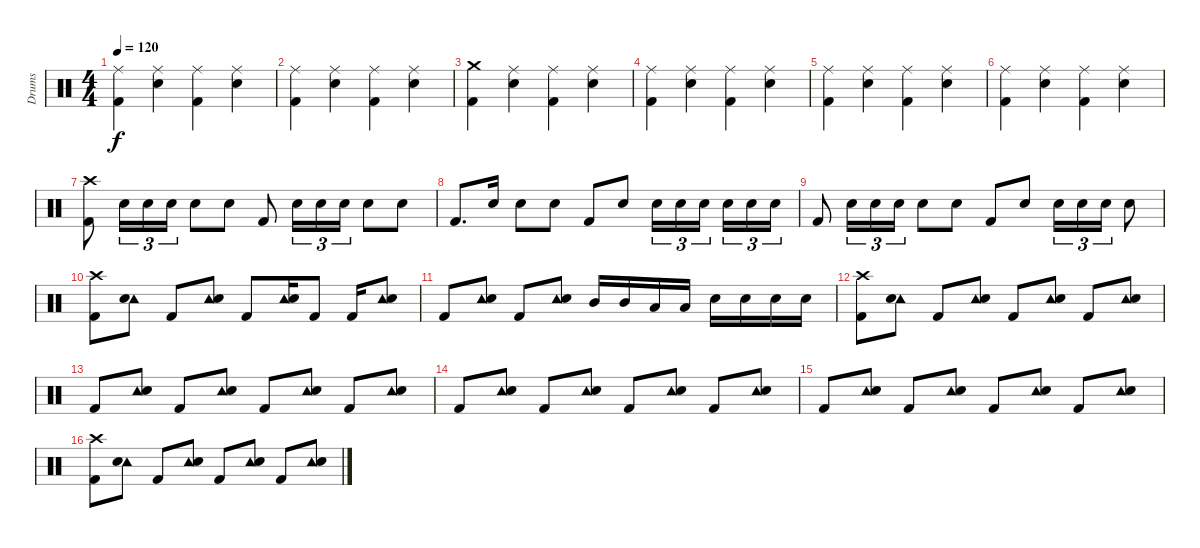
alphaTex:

\track ("Drums" "Drums") {instrument percussion}
\staff {score}
\articulation defaults
\ts (4 4)
\tempo 120
\clef neutral
\ks c
("Ride (middle)" "Kick (hit) 2").4{dy f} ("Ride (middle)" "Electric Snare (hit)").4 ("Ride (middle)" "Kick (hit) 2").4 ("Ride (middle)" "Electric Snare (hit)").4 |
("Ride (middle)" "Kick (hit) 2").4 ("Ride (middle)" "Electric Snare (hit)").4 ("Ride (middle)" "Kick (hit) 2").4 ("Ride (middle)" "Electric Snare (hit)").4 |
("Crash medium (hit)" "Kick (hit) 2").4 ("Ride (middle)" "Electric Snare (hit)").4 ("Ride (middle)" "Kick (hit) 2").4 ("Ride (middle)" "Electric Snare (hit)").4 |
("Ride (middle)" "Kick (hit) 2").4 ("Ride (middle)" "Electric Snare (hit)").4 ("Ride (middle)" "Kick (hit) 2").4 ("Ride (middle)" "Electric Snare (hit)").4 |
("Ride (middle)" "Kick (hit) 2").4 ("Ride (middle)" "Electric Snare (hit)").4 ("Ride (middle)" "Kick (hit) 2").4 ("Ride (middle)" "Electric Snare (hit)").4 |
("Ride (middle)" "Kick (hit) 2").4 ("Ride (middle)" "Electric Snare (hit)").4 ("Ride (middle)" "Kick (hit) 2").4 ("Ride (middle)" "Electric Snare (hit)").4 |
("Crash high (hit)" "Kick (hit) 2").8 "Electric Snare (hit)".16{tu (3 2)} "Electric Snare (hit)".16{tu (3 2)} "Electric Snare (hit)".16{tu (3 2)} "Electric Snare (hit)".8 "Electric Snare (hit)".8 "Kick (hit) 2".8 "Electric Snare (hit)".16{tu (3 2)} "Electric Snare (hit)".16{tu (3 2)} "Electric Snare (hit)".16{tu (3 2)} "Electric Snare (hit)".8 "Electric Snare (hit)".8 |
"Kick (hit) 2".8{d} "Electric Snare (hit)".16 "Electric Snare (hit)".8 "Electric Snare (hit)".8 "Kick (hit) 2".8 "Electric Snare (hit)".8 "Electric Snare (hit)".16{tu (3 2)} "Electric Snare (hit)".16{tu (3 2)} "Electric Snare (hit)".16{tu (3 2) beam splitsecondary} "Electric Snare (hit)".16{tu (3 2)} "Electric Snare (hit)".16{tu (3 2)} "Electric Snare (hit)".16{tu (3 2)} |
"Kick (hit) 2".8 "Electric Snare (hit)".16{tu (3 2)} "Electric Snare (hit)".16{tu (3 2)} "Electric Snare (hit)".16{tu (3 2)} "Electric Snare (hit)".8 "Electric Snare (hit)".8 "Kick (hit) 2".8 "Electric Snare (hit)".8 "Electric Snare (hit)".16{tu (3 2)} "Electric Snare (hit)".16{tu (3 2)} "Electric Snare (hit)".16{tu (3 2)} "Electric Snare (hit)".8 |
("Crash high (hit)" "Kick (hit) 2").8 ("Tambourine (hit)" "Electric Snare (hit)").8 "Kick (hit) 2".8 ("Tambourine (hit)" "Electric Snare (hit)").8 "Kick (hit) 2".8 ("Tambourine (hit)" "Electric Snare (hit)").16 "Kick (hit) 2".8 "Kick (hit) 2".16 ("Tambourine (hit)" "Electric Snare (hit)").8 |
"Kick (hit) 2".8 ("Tambourine (hit)" "Electric Snare (hit)").8 "Kick (hit) 2".8 ("Tambourine (hit)" "Electric Snare (hit)").8 "Mid Tom (hit)".16 "Mid Tom (hit)".16 "Low Tom (hit)".16 "Low Tom (hit)".16 "Electric Snare (hit)".16 "Electric Snare (hit)".16 "Electric Snare (hit)".16 "Electric Snare (hit)".16 |
("Crash high (hit)" "Kick (hit) 2").8 ("Tambourine (hit)" "Electric Snare (hit)").8 "Kick (hit) 2".8 ("Tambourine (hit)" "Electric Snare (hit)").8 "Kick (hit) 2".8 ("Tambourine (hit)" "Electric Snare (hit)").8 "Kick (hit) 2".8 ("Tambourine (hit)" "Electric Snare (hit)").8 |
"Kick (hit) 2".8 ("Tambourine (hit)" "Electric Snare (hit)").8 "Kick (hit) 2".8 ("Tambourine (hit)" "Electric Snare (hit)").8 "Kick (hit) 2".8 ("Tambourine (hit)" "Electric Snare (hit)").8 "Kick (hit) 2".8 ("Tambourine (hit)" "Electric Snare (hit)").8 |
"Kick (hit) 2".8 ("Tambourine (hit)" "Electric Snare (hit)").8 "Kick (hit) 2".8 ("Tambourine (hit)" "Electric Snare (hit)").8 "Kick (hit) 2".8 ("Tambourine (hit)" "Electric Snare (hit)").8 "Kick (hit) 2".8 ("Tambourine (hit)" "Electric Snare (hit)").8 |
"Kick (hit) 2".8 ("Tambourine (hit)" "Electric Snare (hit)").8 "Kick (hit) 2".8 ("Tambourine (hit)" "Electric Snare (hit)").8 "Kick (hit) 2".8 ("Tambourine (hit)" "Electric Snare (hit)").8 "Kick (hit) 2".8 ("Tambourine (hit)" "Electric Snare (hit)").8 |
("Crash high (hit)" "Kick (hit) 2").8 ("Tambourine (hit)" "Electric Snare (hit)").8 "Kick (hit) 2".8 ("Tambourine (hit)" "Electric Snare (hit)").8 "Kick (hit) 2".8 ("Tambourine (hit)" "Electric Snare (hit)").8 "Kick (hit) 2".8 ("Tambourine (hit)" "Electric Snare (hit)").8
